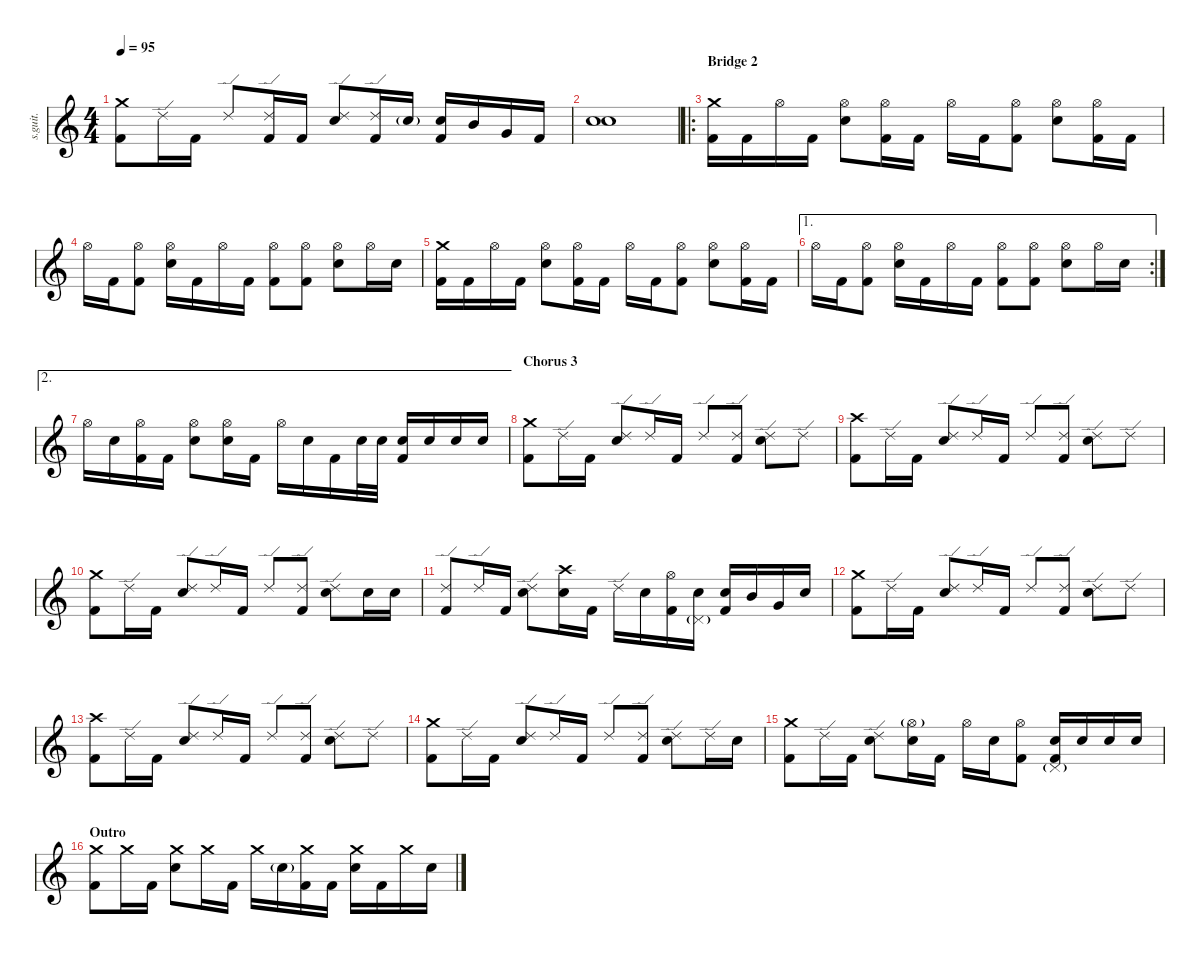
\defaultSystemsLayout 4
\hideDynamics
\bracketExtendMode nobrackets
\track ("Josh Freese" "s.guit.") {instrument percussion}
\staff {score}
\articulation defaults
\ts (4 4)
\tempo 95
\clef g2
\ks c
("Crash medium (hit)" "Kick (hit) 2").8{lyrics (0 "") lyrics (1 "") lyrics (2 "") lyrics (3 "") lyrics (4 "") dy f} "Ride (edge) 2".16{lyrics (0 "") lyrics (1 "") lyrics (2 "") lyrics (3 "") lyrics (4 "")} "Kick (hit) 2".16{lyrics (0 "") lyrics (1 "") lyrics (2 "") lyrics (3 "") lyrics (4 "")} "Ride (edge) 2".8{lyrics (0 "") lyrics (1 "") lyrics (2 "") lyrics (3 "") lyrics (4 "")} ("Ride (edge) 2" "Kick (hit) 2").16{lyrics (0 "") lyrics (1 "") lyrics (2 "") lyrics (3 "") lyrics (4 "")} "Kick (hit) 2".16{lyrics (0 "") lyrics (1 "") lyrics (2 "") lyrics (3 "") lyrics (4 "")} ("Ride (edge) 2" "Snare (hit) 2").8{lyrics (0 "") lyrics (1 "") lyrics (2 "") lyrics (3 "") lyrics (4 "")} ("Ride (edge) 2" "Kick (hit) 2").16{lyrics (0 "") lyrics (1 "") lyrics (2 "") lyrics (3 "") lyrics (4 "")} "Snare (hit) 2"{g}.16{lyrics (0 "") lyrics (1 "") lyrics (2 "") lyrics (3 "") lyrics (4 "")} ("Snare (hit) 2" "Kick (hit) 2").16{lyrics (0 "") lyrics (1 "") lyrics (2 "") lyrics (3 "") lyrics (4 "")} "Mid Tom (hit)".16{lyrics (0 "") lyrics (1 "") lyrics (2 "") lyrics (3 "") lyrics (4 "")} "Very Low Tom (hit)".16{lyrics (0 "") lyrics (1 "") lyrics (2 "") lyrics (3 "") lyrics (4 "")} "Kick (hit) 2".16{lyrics (0 "") lyrics (1 "") lyrics (2 "") lyrics (3 "") lyrics (4 "")} |
("Snare (hit) 2" "Snare (hit) 2").1{lyrics (0 "") lyrics (1 "") lyrics (2 "") lyrics (3 "") lyrics (4 "")} |
\ro
\section ("" "Bridge 2")
("Crash medium (hit)" "Kick (hit) 2").16{lyrics (0 "") lyrics (1 "") lyrics (2 "") lyrics (3 "") lyrics (4 "")} "Kick (hit) 2".16{lyrics (0 "") lyrics (1 "") lyrics (2 "") lyrics (3 "") lyrics (4 "")} "Hi-Hat (open)".16{lyrics (0 "") lyrics (1 "") lyrics (2 "") lyrics (3 "") lyrics (4 "")} "Kick (hit) 2".16{lyrics (0 "") lyrics (1 "") lyrics (2 "") lyrics (3 "") lyrics (4 "")} ("Hi-Hat (open)" "Snare (hit) 2").8{lyrics (0 "") lyrics (1 "") lyrics (2 "") lyrics (3 "") lyrics (4 "")} ("Hi-Hat (open)" "Kick (hit) 2").16{lyrics (0 "") lyrics (1 "") lyrics (2 "") lyrics (3 "") lyrics (4 "")} "Kick (hit) 2".16{lyrics (0 "") lyrics (1 "") lyrics (2 "") lyrics (3 "") lyrics (4 "")} "Hi-Hat (open)".16{lyrics (0 "") lyrics (1 "") lyrics (2 "") lyrics (3 "") lyrics (4 "")} "Kick (hit) 2".16{lyrics (0 "") lyrics (1 "") lyrics (2 "") lyrics (3 "") lyrics (4 "")} ("Hi-Hat (open)" "Kick (hit) 2").8{lyrics (0 "") lyrics (1 "") lyrics (2 "") lyrics (3 "") lyrics (4 "")} ("Hi-Hat (open)" "Snare (hit) 2").8{lyrics (0 "") lyrics (1 "") lyrics (2 "") lyrics (3 "") lyrics (4 "")} ("Hi-Hat (open)" "Kick (hit) 2").16{lyrics (0 "") lyrics (1 "") lyrics (2 "") lyrics (3 "") lyrics (4 "")} "Kick (hit) 2".16{lyrics (0 "") lyrics (1 "") lyrics (2 "") lyrics (3 "") lyrics (4 "")} |
"Hi-Hat (open)".16{lyrics (0 "") lyrics (1 "") lyrics (2 "") lyrics (3 "") lyrics (4 "")} "Kick (hit) 2".16{lyrics (0 "") lyrics (1 "") lyrics (2 "") lyrics (3 "") lyrics (4 "")} ("Hi-Hat (open)" "Kick (hit) 2").8{lyrics (0 "") lyrics (1 "") lyrics (2 "") lyrics (3 "") lyrics (4 "")} ("Hi-Hat (open)" "Snare (hit) 2").16{lyrics (0 "") lyrics (1 "") lyrics (2 "") lyrics (3 "") lyrics (4 "")} "Kick (hit) 2".16{lyrics (0 "") lyrics (1 "") lyrics (2 "") lyrics (3 "") lyrics (4 "")} "Hi-Hat (open)".16{lyrics (0 "") lyrics (1 "") lyrics (2 "") lyrics (3 "") lyrics (4 "")} "Kick (hit) 2".16{lyrics (0 "") lyrics (1 "") lyrics (2 "") lyrics (3 "") lyrics (4 "")} ("Hi-Hat (open)" "Kick (hit) 2").8{lyrics (0 "") lyrics (1 "") lyrics (2 "") lyrics (3 "") lyrics (4 "")} ("Hi-Hat (open)" "Kick (hit) 2").8{lyrics (0 "") lyrics (1 "") lyrics (2 "") lyrics (3 "") lyrics (4 "")} ("Hi-Hat (open)" "Snare (hit) 2").8{lyrics (0 "") lyrics (1 "") lyrics (2 "") lyrics (3 "") lyrics (4 "")} "Hi-Hat (open)".16{lyrics (0 "") lyrics (1 "") lyrics (2 "") lyrics (3 "") lyrics (4 "")} "Snare (hit) 2".16{lyrics (0 "") lyrics (1 "") lyrics (2 "") lyrics (3 "") lyrics (4 "")} |
("Crash medium (hit)" "Kick (hit) 2").16{lyrics (0 "") lyrics (1 "") lyrics (2 "") lyrics (3 "") lyrics (4 "")} "Kick (hit) 2".16{lyrics (0 "") lyrics (1 "") lyrics (2 "") lyrics (3 "") lyrics (4 "")} "Hi-Hat (open)".16{lyrics (0 "") lyrics (1 "") lyrics (2 "") lyrics (3 "") lyrics (4 "")} "Kick (hit) 2".16{lyrics (0 "") lyrics (1 "") lyrics (2 "") lyrics (3 "") lyrics (4 "")} ("Hi-Hat (open)" "Snare (hit) 2").8{lyrics (0 "") lyrics (1 "") lyrics (2 "") lyrics (3 "") lyrics (4 "")} ("Hi-Hat (open)" "Kick (hit) 2").16{lyrics (0 "") lyrics (1 "") lyrics (2 "") lyrics (3 "") lyrics (4 "")} "Kick (hit) 2".16{lyrics (0 "") lyrics (1 "") lyrics (2 "") lyrics (3 "") lyrics (4 "")} "Hi-Hat (open)".16{lyrics (0 "") lyrics (1 "") lyrics (2 "") lyrics (3 "") lyrics (4 "")} "Kick (hit) 2".16{lyrics (0 "") lyrics (1 "") lyrics (2 "") lyrics (3 "") lyrics (4 "")} ("Hi-Hat (open)" "Kick (hit) 2").8{lyrics (0 "") lyrics (1 "") lyrics (2 "") lyrics (3 "") lyrics (4 "")} ("Hi-Hat (open)" "Snare (hit) 2").8{lyrics (0 "") lyrics (1 "") lyrics (2 "") lyrics (3 "") lyrics (4 "")} ("Hi-Hat (open)" "Kick (hit) 2").16{lyrics (0 "") lyrics (1 "") lyrics (2 "") lyrics (3 "") lyrics (4 "")} "Kick (hit) 2".16{lyrics (0 "") lyrics (1 "") lyrics (2 "") lyrics (3 "") lyrics (4 "")} |
\ae 1
\rc 2 "Hi-Hat (open)".16{lyrics (0 "") lyrics (1 "") lyrics (2 "") lyrics (3 "") lyrics (4 "")} "Kick (hit) 2".16{lyrics (0 "") lyrics (1 "") lyrics (2 "") lyrics (3 "") lyrics (4 "")}
("Hi-Hat (open)" "Kick (hit) 2").8{lyrics (0 "") lyrics (1 "") lyrics (2 "") lyrics (3 "") lyrics (4 "")} ("Hi-Hat (open)" "Snare (hit) 2").16{lyrics (0 "") lyrics (1 "") lyrics (2 "") lyrics (3 "") lyrics (4 "")} "Kick (hit) 2".16{lyrics (0 "") lyrics (1 "") lyrics (2 "") lyrics (3 "") lyrics (4 "")} "Hi-Hat (open)".16{lyrics (0 "") lyrics (1 "") lyrics (2 "") lyrics (3 "") lyrics (4 "")} "Kick (hit) 2".16{lyrics (0 "") lyrics (1 "") lyrics (2 "") lyrics (3 "") lyrics (4 "")} ("Hi-Hat (open)" "Kick (hit) 2").8{lyrics (0 "") lyrics (1 "") lyrics (2 "") lyrics (3 "") lyrics (4 "")} ("Hi-Hat (open)" "Kick (hit) 2").8{lyrics (0 "") lyrics (1 "") lyrics (2 "") lyrics (3 "") lyrics (4 "")} ("Hi-Hat (open)" "Snare (hit) 2").8{lyrics (0 "") lyrics (1 "") lyrics (2 "") lyrics (3 "") lyrics (4 "")} "Hi-Hat (open)".16{lyrics (0 "") lyrics (1 "") lyrics (2 "") lyrics (3 "") lyrics (4 "")} "Snare (hit) 2".16{lyrics (0 "") lyrics (1 "") lyrics (2 "") lyrics (3 "") lyrics (4 "")} |
\ae 2 "Hi-Hat (open)".16{lyrics (0 "") lyrics (1 "") lyrics (2 "") lyrics (3 "") lyrics (4 "")} "Snare (hit) 2".16{lyrics (0 "") lyrics (1 "") lyrics (2 "") lyrics (3 "") lyrics (4 "")}
("Hi-Hat (open)" "Kick (hit) 2").16{lyrics (0 "") lyrics (1 "") lyrics (2 "") lyrics (3 "") lyrics (4 "")} "Kick (hit) 2".16{lyrics (0 "") lyrics (1 "") lyrics (2 "") lyrics (3 "") lyrics (4 "")} ("Hi-Hat (open)" "Snare (hit) 2").8{lyrics (0 "") lyrics (1 "") lyrics (2 "") lyrics (3 "") lyrics (4 "")} ("Hi-Hat (open)" "Snare (hit) 2").16{lyrics (0 "") lyrics (1 "") lyrics (2 "") lyrics (3 "") lyrics (4 "")} "Kick (hit) 2".16{lyrics (0 "") lyrics (1 "") lyrics (2 "") lyrics (3 "") lyrics (4 "")} "Hi-Hat (open)".16{lyrics (0 "") lyrics (1 "") lyrics (2 "") lyrics (3 "") lyrics (4 "")} "Snare (hit) 2".16{lyrics (0 "") lyrics (1 "") lyrics (2 "") lyrics (3 "") lyrics (4 "")} "Kick (hit) 2".16{lyrics (0 "") lyrics (1 "") lyrics (2 "") lyrics (3 "") lyrics (4 "")} "Snare (hit) 2".32{lyrics (0 "") lyrics (1 "") lyrics (2 "") lyrics (3 "") lyrics (4 "")} "Snare (hit) 2".32{lyrics (0 "") lyrics (1 "") lyrics (2 "") lyrics (3 "") lyrics (4 "")} ("Snare (hit) 2" "Kick (hit) 2").16{lyrics (0 "") lyrics (1 "") lyrics (2 "") lyrics (3 "") lyrics (4 "")} "Snare (hit) 2".16{lyrics (0 "") lyrics (1 "") lyrics (2 "") lyrics (3 "") lyrics (4 "")} "Snare (hit) 2".16{lyrics (0 "") lyrics (1 "") lyrics (2 "") lyrics (3 "") lyrics (4 "")} "Snare (hit) 2".16{lyrics (0 "") lyrics (1 "") lyrics (2 "") lyrics (3 "") lyrics (4 "")} |
\section ("" "Chorus 3")
("Crash medium (hit)" "Kick (hit) 2").8{lyrics (0 "") lyrics (1 "") lyrics (2 "") lyrics (3 "") lyrics (4 "")} "Ride (edge) 2".16{lyrics (0 "") lyrics (1 "") lyrics (2 "") lyrics (3 "") lyrics (4 "")} "Kick (hit) 2".16{lyrics (0 "") lyrics (1 "") lyrics (2 "") lyrics (3 "") lyrics (4 "")} ("Ride (edge) 2" "Snare (hit) 2").8{lyrics (0 "") lyrics (1 "") lyrics (2 "") lyrics (3 "") lyrics (4 "")} "Ride (edge) 2".16{lyrics (0 "") lyrics (1 "") lyrics (2 "") lyrics (3 "") lyrics (4 "")} "Kick (hit) 2".16{lyrics (0 "") lyrics (1 "") lyrics (2 "") lyrics (3 "") lyrics (4 "")} "Ride (edge) 2".8{lyrics (0 "") lyrics (1 "") lyrics (2 "") lyrics (3 "") lyrics (4 "")} ("Ride (edge) 2" "Kick (hit) 2").8{lyrics (0 "") lyrics (1 "") lyrics (2 "") lyrics (3 "") lyrics (4 "")} ("Ride (edge) 2" "Snare (hit) 2").8{lyrics (0 "") lyrics (1 "") lyrics (2 "") lyrics (3 "") lyrics (4 "")} "Ride (edge) 2".8{lyrics (0 "") lyrics (1 "") lyrics (2 "") lyrics (3 "") lyrics (4 "")} |
("Crash high (hit)" "Kick (hit) 2").8{lyrics (0 "") lyrics (1 "") lyrics (2 "") lyrics (3 "") lyrics (4 "")} "Ride (edge) 2".16{lyrics (0 "") lyrics (1 "") lyrics (2 "") lyrics (3 "") lyrics (4 "")} "Kick (hit) 2".16{lyrics (0 "") lyrics (1 "") lyrics (2 "") lyrics (3 "") lyrics (4 "")} ("Ride (edge) 2" "Snare (hit) 2").8{lyrics (0 "") lyrics (1 "") lyrics (2 "") lyrics (3 "") lyrics (4 "")} "Ride (edge) 2".16{lyrics (0 "") lyrics (1 "") lyrics (2 "") lyrics (3 "") lyrics (4 "")} "Kick (hit) 2".16{lyrics (0 "") lyrics (1 "") lyrics (2 "") lyrics (3 "") lyrics (4 "")} "Ride (edge) 2".8{lyrics (0 "") lyrics (1 "") lyrics (2 "") lyrics (3 "") lyrics (4 "")} ("Ride (edge) 2" "Kick (hit) 2").8{lyrics (0 "") lyrics (1 "") lyrics (2 "") lyrics (3 "") lyrics (4 "")} ("Ride (edge) 2" "Snare (hit) 2").8{lyrics (0 "") lyrics (1 "") lyrics (2 "") lyrics (3 "") lyrics (4 "")} "Ride (edge) 2".8{lyrics (0 "") lyrics (1 "") lyrics (2 "") lyrics (3 "") lyrics (4 "")} |
("Crash medium (hit)" "Kick (hit) 2").8{lyrics (0 "") lyrics (1 "") lyrics (2 "") lyrics (3 "") lyrics (4 "")} "Ride (edge) 2".16{lyrics (0 "") lyrics (1 "") lyrics (2 "") lyrics (3 "") lyrics (4 "")} "Kick (hit) 2".16{lyrics (0 "") lyrics (1 "") lyrics (2 "") lyrics (3 "") lyrics (4 "")} ("Ride (edge) 2" "Snare (hit) 2").8{lyrics (0 "") lyrics (1 "") lyrics (2 "") lyrics (3 "") lyrics (4 "")} "Ride (edge) 2".16{lyrics (0 "") lyrics (1 "") lyrics (2 "") lyrics (3 "") lyrics (4 "")} "Kick (hit) 2".16{lyrics (0 "") lyrics (1 "") lyrics (2 "") lyrics (3 "") lyrics (4 "")} "Ride (edge) 2".8{lyrics (0 "") lyrics (1 "") lyrics (2 "") lyrics (3 "") lyrics (4 "")} ("Ride (edge) 2" "Kick (hit) 2").8{lyrics (0 "") lyrics (1 "") lyrics (2 "") lyrics (3 "") lyrics (4 "")} ("Ride (edge) 2" "Snare (hit) 2").8{lyrics (0 "") lyrics (1 "") lyrics (2 "") lyrics (3 "") lyrics (4 "")} "Snare (hit) 2".16{lyrics (0 "") lyrics (1 "") lyrics (2 "") lyrics (3 "") lyrics (4 "")} "Snare (hit) 2".16{lyrics (0 "") lyrics (1 "") lyrics (2 "") lyrics (3 "") lyrics (4 "")} |
("Ride (edge) 2" "Kick (hit) 2").8{lyrics (0 "") lyrics (1 "") lyrics (2 "") lyrics (3 "") lyrics (4 "")} "Ride (edge) 2".16{lyrics (0 "") lyrics (1 "") lyrics (2 "") lyrics (3 "") lyrics (4 "")} "Kick (hit) 2".16{lyrics (0 "") lyrics (1 "") lyrics (2 "") lyrics (3 "") lyrics (4 "")} ("Ride (edge) 2" "Snare (hit) 2").8{lyrics (0 "") lyrics (1 "") lyrics (2 "") lyrics (3 "") lyrics (4 "")} ("Crash high (hit)" "Snare (hit) 2").16{lyrics (0 "") lyrics (1 "") lyrics (2 "") lyrics (3 "") lyrics (4 "")} "Kick (hit) 2".16{lyrics (0 "") lyrics (1 "") lyrics (2 "") lyrics (3 "") lyrics (4 "")} "Ride (edge) 2".16{lyrics (0 "") lyrics (1 "") lyrics (2 "") lyrics (3 "") lyrics (4 "")} "Snare (hit) 2".16{lyrics (0 "") lyrics (1 "") lyrics (2 "") lyrics (3 "") lyrics (4 "")} ("Hi-Hat (open)" "Kick (hit) 2").16{lyrics (0 "") lyrics (1 "") lyrics (2 "") lyrics (3 "") lyrics (4 "")} ("Snare (hit) 2" "Pedal Hi-Hat (hit)"{g}).16{lyrics (0 "") lyrics (1 "") lyrics (2 "") lyrics (3 "") lyrics (4 "")} ("Snare (hit) 2" "Kick (hit) 2").16{lyrics (0 "") lyrics (1 "") lyrics (2 "") lyrics (3 "") lyrics (4 "")} "Mid Tom (hit)".16{lyrics (0 "") lyrics (1 "") lyrics (2 "") lyrics (3 "") lyrics (4 "")} "Very Low Tom (hit)".16{lyrics (0 "") lyrics (1 "") lyrics (2 "") lyrics (3 "") lyrics (4 "")} "Snare (hit) 2".16{lyrics (0 "") lyrics (1 "") lyrics (2 "") lyrics (3 "") lyrics (4 "")} |
("Crash medium (hit)" "Kick (hit) 2").8{lyrics (0 "") lyrics (1 "") lyrics (2 "") lyrics (3 "") lyrics (4 "")} "Ride (edge) 2".16{lyrics (0 "") lyrics (1 "") lyrics (2 "") lyrics (3 "") lyrics (4 "")} "Kick (hit) 2".16{lyrics (0 "") lyrics (1 "") lyrics (2 "") lyrics (3 "") lyrics (4 "")} ("Ride (edge) 2" "Snare (hit) 2").8{lyrics (0 "") lyrics (1 "") lyrics (2 "") lyrics (3 "") lyrics (4 "")} "Ride (edge) 2".16{lyrics (0 "") lyrics (1 "") lyrics (2 "") lyrics (3 "") lyrics (4 "")} "Kick (hit) 2".16{lyrics (0 "") lyrics (1 "") lyrics (2 "") lyrics (3 "") lyrics (4 "")} "Ride (edge) 2".8{lyrics (0 "") lyrics (1 "") lyrics (2 "") lyrics (3 "") lyrics (4 "")} ("Ride (edge) 2" "Kick (hit) 2").8{lyrics (0 "") lyrics (1 "") lyrics (2 "") lyrics (3 "") lyrics (4 "")} ("Ride (edge) 2" "Snare (hit) 2").8{lyrics (0 "") lyrics (1 "") lyrics (2 "") lyrics (3 "") lyrics (4 "")} "Ride (edge) 2".8{lyrics (0 "") lyrics (1 "") lyrics (2 "") lyrics (3 "") lyrics (4 "")} |
("Crash high (hit)" "Kick (hit) 2").8{lyrics (0 "") lyrics (1 "") lyrics (2 "") lyrics (3 "") lyrics (4 "")} "Ride (edge) 2".16{lyrics (0 "") lyrics (1 "") lyrics (2 "") lyrics (3 "") lyrics (4 "")} "Kick (hit) 2".16{lyrics (0 "") lyrics (1 "") lyrics (2 "") lyrics (3 "") lyrics (4 "")} ("Ride (edge) 2" "Snare (hit) 2").8{lyrics (0 "") lyrics (1 "") lyrics (2 "") lyrics (3 "") lyrics (4 "")} "Ride (edge) 2".16{lyrics (0 "") lyrics (1 "") lyrics (2 "") lyrics (3 "") lyrics (4 "")} "Kick (hit) 2".16{lyrics (0 "") lyrics (1 "") lyrics (2 "") lyrics (3 "") lyrics (4 "")} "Ride (edge) 2".8{lyrics (0 "") lyrics (1 "") lyrics (2 "") lyrics (3 "") lyrics (4 "")} ("Ride (edge) 2" "Kick (hit) 2").8{lyrics (0 "") lyrics (1 "") lyrics (2 "") lyrics (3 "") lyrics (4 "")} ("Ride (edge) 2" "Snare (hit) 2").8{lyrics (0 "") lyrics (1 "") lyrics (2 "") lyrics (3 "") lyrics (4 "")} "Ride (edge) 2".8{lyrics (0 "") lyrics (1 "") lyrics (2 "") lyrics (3 "") lyrics (4 "")} |
("Crash medium (hit)" "Kick (hit) 2").8{lyrics (0 "") lyrics (1 "") lyrics (2 "") lyrics (3 "") lyrics (4 "")} "Ride (edge) 2".16{lyrics (0 "") lyrics (1 "") lyrics (2 "") lyrics (3 "") lyrics (4 "")} "Kick (hit) 2".16{lyrics (0 "") lyrics (1 "") lyrics (2 "") lyrics (3 "") lyrics (4 "")} ("Ride (edge) 2" "Snare (hit) 2").8{lyrics (0 "") lyrics (1 "") lyrics (2 "") lyrics (3 "") lyrics (4 "")} "Ride (edge) 2".16{lyrics (0 "") lyrics (1 "") lyrics (2 "") lyrics (3 "") lyrics (4 "")} "Kick (hit) 2".16{lyrics (0 "") lyrics (1 "") lyrics (2 "") lyrics (3 "") lyrics (4 "")} "Ride (edge) 2".8{lyrics (0 "") lyrics (1 "") lyrics (2 "") lyrics (3 "") lyrics (4 "")} ("Ride (edge) 2" "Kick (hit) 2").8{lyrics (0 "") lyrics (1 "") lyrics (2 "") lyrics (3 "") lyrics (4 "")} ("Ride (edge) 2" "Snare (hit) 2").8{lyrics (0 "") lyrics (1 "") lyrics (2 "") lyrics (3 "") lyrics (4 "")} "Ride (edge) 2".16{lyrics (0 "") lyrics (1 "") lyrics (2 "") lyrics (3 "") lyrics (4 "")} "Snare (hit) 2".16{lyrics (0 "") lyrics (1 "") lyrics (2 "") lyrics (3 "") lyrics (4 "")} |
("Crash medium (hit)" "Kick (hit) 2").8{lyrics (0 "") lyrics (1 "") lyrics (2 "") lyrics (3 "") lyrics (4 "")} "Ride (edge) 2".16{lyrics (0 "") lyrics (1 "") lyrics (2 "") lyrics (3 "") lyrics (4 "")} "Kick (hit) 2".16{lyrics (0 "") lyrics (1 "") lyrics (2 "") lyrics (3 "") lyrics (4 "")} ("Ride (edge) 2" "Snare (hit) 2").8{lyrics (0 "") lyrics (1 "") lyrics (2 "") lyrics (3 "") lyrics (4 "")} ("Hi-Hat (open)"{g} "Snare (hit) 2").16{lyrics (0 "") lyrics (1 "") lyrics (2 "") lyrics (3 "") lyrics (4 "")} "Kick (hit) 2".16{lyrics (0 "") lyrics (1 "") lyrics (2 "") lyrics (3 "") lyrics (4 "")} "Hi-Hat (open)".16{lyrics (0 "") lyrics (1 "") lyrics (2 "") lyrics (3 "") lyrics (4 "")} "Snare (hit) 2".16{lyrics (0 "") lyrics (1 "") lyrics (2 "") lyrics (3 "") lyrics (4 "")} ("Hi-Hat (open)" "Kick (hit) 2").8{lyrics (0 "") lyrics (1 "") lyrics (2 "") lyrics (3 "") lyrics (4 "")} ("Snare (hit) 2" "Kick (hit) 2" "Pedal Hi-Hat (hit)"{g}).16{lyrics (0 "") lyrics (1 "") lyrics (2 "") lyrics (3 "") lyrics (4 "")} "Snare (hit) 2".16{lyrics (0 "") lyrics (1 "") lyrics (2 "") lyrics (3 "") lyrics (4 "")} "Snare (hit) 2".16{lyrics (0 "") lyrics (1 "") lyrics (2 "") lyrics (3 "") lyrics (4 "")} "Snare (hit) 2".16{lyrics (0 "") lyrics (1 "") lyrics (2 "") lyrics (3 "") lyrics (4 "")} |
\section ("" "Outro")
("Crash medium (hit)" "Kick (hit) 2").8{lyrics (0 "") lyrics (1 "") lyrics (2 "") lyrics (3 "") lyrics (4 "")} "Crash medium (hit)".16{lyrics (0 "") lyrics (1 "") lyrics (2 "") lyrics (3 "") lyrics (4 "")} "Kick (hit) 2".16{lyrics (0 "") lyrics (1 "") lyrics (2 "") lyrics (3 "") lyrics (4 "")} ("Crash medium (hit)" "Snare (hit) 2").8{lyrics (0 "") lyrics (1 "") lyrics (2 "") lyrics (3 "") lyrics (4 "")} "Crash medium (hit)".16{lyrics (0 "") lyrics (1 "") lyrics (2 "") lyrics (3 "") lyrics (4 "")} "Kick (hit) 2".16{lyrics (0 "") lyrics (1 "") lyrics (2 "") lyrics (3 "") lyrics (4 "")} "Crash medium (hit)".16{lyrics (0 "") lyrics (1 "") lyrics (2 "") lyrics (3 "") lyrics (4 "")} "Snare (hit) 2"{g}.16{lyrics (0 "") lyrics (1 "") lyrics (2 "") lyrics (3 "") lyrics (4 "")} ("Crash medium (hit)" "Kick (hit) 2").16{lyrics (0 "") lyrics (1 "") lyrics (2 "") lyrics (3 "") lyrics (4 "")} "Kick (hit) 2".16{lyrics (0 "") lyrics (1 "") lyrics (2 "") lyrics (3 "") lyrics (4 "")} ("Crash medium (hit)" "Snare (hit) 2").16{lyrics (0 "") lyrics (1 "") lyrics (2 "") lyrics (3 "") lyrics (4 "")} "Kick (hit) 2".16{lyrics (0 "") lyrics (1 "") lyrics (2 "") lyrics (3 "") lyrics (4 "")} "Crash medium (hit)".16{lyrics (0 "") lyrics (1 "") lyrics (2 "") lyrics (3 "") lyrics (4 "")} "Snare (hit) 2".16{lyrics (0 "") lyrics (1 "") lyrics (2 "") lyrics (3 "") lyrics (4 "")}
